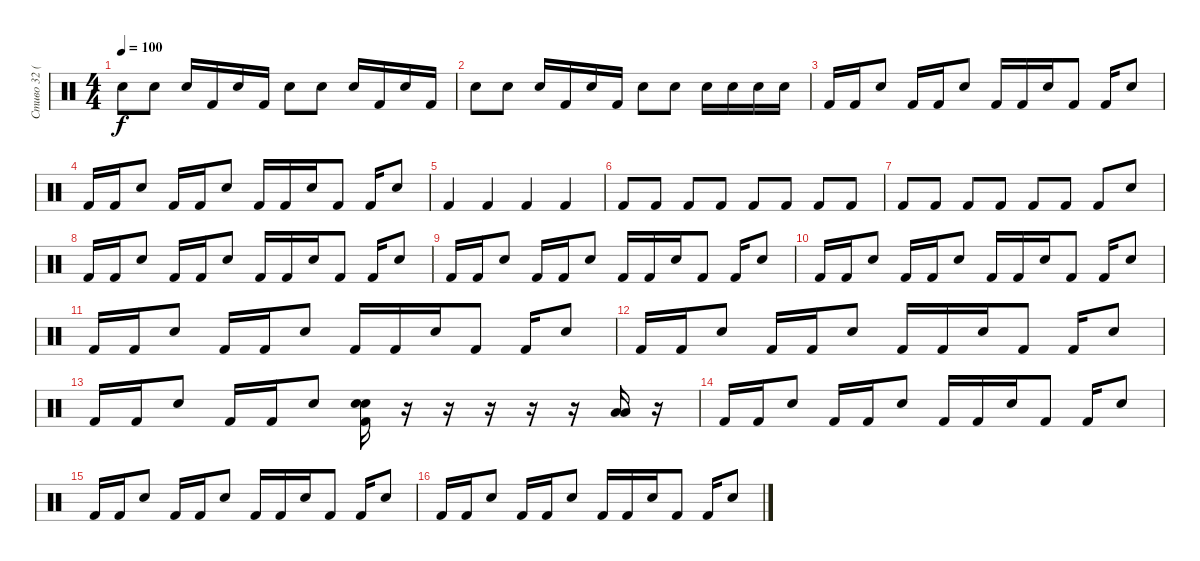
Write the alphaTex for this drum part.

\track ("Стиво 32 (Ударные)" "Стиво 32 (") {instrument percussion}
\staff {score}
\articulation defaults
\ts (4 4)
\tempo 100
\clef neutral
\ks c "Electric Snare (hit)".8{dy f} "Electric Snare (hit)".8 "Electric Snare (hit)".16 "Kick (hit) 2".16 "Electric Snare (hit)".16 "Kick (hit) 2".16 "Electric Snare (hit)".8 "Electric Snare (hit)".8 "Electric Snare (hit)".16 "Kick (hit) 2".16 "Electric Snare (hit)".16 "Kick (hit) 2".16
|
"Electric Snare (hit)".8 "Electric Snare (hit)".8 "Electric Snare (hit)".16 "Kick (hit) 2".16 "Electric Snare (hit)".16 "Kick (hit) 2".16 "Electric Snare (hit)".8 "Electric Snare (hit)".8 "Electric Snare (hit)".16 "Electric Snare (hit)".16 "Electric Snare (hit)".16 "Electric Snare (hit)".16 |
"Kick (hit) 2".16 "Kick (hit) 2".16 "Electric Snare (hit)".8 "Kick (hit) 2".16 "Kick (hit) 2".16 "Electric Snare (hit)".8 "Kick (hit) 2".16 "Kick (hit) 2".16 "Electric Snare (hit)".16 "Kick (hit) 2".8 "Kick (hit) 2".16 "Electric Snare (hit)".8 |
"Kick (hit) 2".16 "Kick (hit) 2".16 "Electric Snare (hit)".8 "Kick (hit) 2".16 "Kick (hit) 2".16 "Electric Snare (hit)".8 "Kick (hit) 2".16 "Kick (hit) 2".16 "Electric Snare (hit)".16 "Kick (hit) 2".8 "Kick (hit) 2".16 "Electric Snare (hit)".8 |
"Kick (hit) 2".4 "Kick (hit) 2".4 "Kick (hit) 2".4 "Kick (hit) 2".4 |
"Kick (hit) 2".8 "Kick (hit) 2".8 "Kick (hit) 2".8 "Kick (hit) 2".8 "Kick (hit) 2".8 "Kick (hit) 2".8 "Kick (hit) 2".8 "Kick (hit) 2".8 |
"Kick (hit) 2".8 "Kick (hit) 2".8 "Kick (hit) 2".8 "Kick (hit) 2".8 "Kick (hit) 2".8 "Kick (hit) 2".8 "Kick (hit) 2".8 "Electric Snare (hit)".8 |
"Kick (hit) 2".16 "Kick (hit) 2".16 "Electric Snare (hit)".8 "Kick (hit) 2".16 "Kick (hit) 2".16 "Electric Snare (hit)".8 "Kick (hit) 2".16 "Kick (hit) 2".16 "Electric Snare (hit)".16 "Kick (hit) 2".8 "Kick (hit) 2".16 "Electric Snare (hit)".8 |
"Kick (hit) 2".16 "Kick (hit) 2".16 "Electric Snare (hit)".8 "Kick (hit) 2".16 "Kick (hit) 2".16 "Electric Snare (hit)".8 "Kick (hit) 2".16 "Kick (hit) 2".16 "Electric Snare (hit)".16 "Kick (hit) 2".8 "Kick (hit) 2".16 "Electric Snare (hit)".8 |
"Kick (hit) 2".16 "Kick (hit) 2".16 "Electric Snare (hit)".8 "Kick (hit) 2".16 "Kick (hit) 2".16 "Electric Snare (hit)".8 "Kick (hit) 2".16 "Kick (hit) 2".16 "Electric Snare (hit)".16 "Kick (hit) 2".8 "Kick (hit) 2".16 "Electric Snare (hit)".8 |
"Kick (hit) 2".16 "Kick (hit) 2".16 "Electric Snare (hit)".8 "Kick (hit) 2".16 "Kick (hit) 2".16 "Electric Snare (hit)".8 "Kick (hit) 2".16 "Kick (hit) 2".16 "Electric Snare (hit)".16 "Kick (hit) 2".8 "Kick (hit) 2".16 "Electric Snare (hit)".8 |
"Kick (hit) 2".16 "Kick (hit) 2".16 "Electric Snare (hit)".8 "Kick (hit) 2".16 "Kick (hit) 2".16 "Electric Snare (hit)".8 "Kick (hit) 2".16 "Kick (hit) 2".16 "Electric Snare (hit)".16 "Kick (hit) 2".8 "Kick (hit) 2".16 "Electric Snare (hit)".8 |
"Kick (hit) 2".16 "Kick (hit) 2".16 "Electric Snare (hit)".8 "Kick (hit) 2".16 "Kick (hit) 2".16 "Electric Snare (hit)".8 ("Snare (hit) 2" "Electric Snare (hit)" "Kick (hit) 2").16 r.16 r.16 r.16 r.16 r.16 ("Low Floor Tom (hit)" "Low Tom (hit)").16 r.16 |
"Kick (hit) 2".16 "Kick (hit) 2".16 "Electric Snare (hit)".8 "Kick (hit) 2".16 "Kick (hit) 2".16 "Electric Snare (hit)".8 "Kick (hit) 2".16 "Kick (hit) 2".16 "Electric Snare (hit)".16 "Kick (hit) 2".8 "Kick (hit) 2".16 "Electric Snare (hit)".8 |
"Kick (hit) 2".16 "Kick (hit) 2".16 "Electric Snare (hit)".8 "Kick (hit) 2".16 "Kick (hit) 2".16 "Electric Snare (hit)".8 "Kick (hit) 2".16 "Kick (hit) 2".16 "Electric Snare (hit)".16 "Kick (hit) 2".8 "Kick (hit) 2".16 "Electric Snare (hit)".8 |
"Kick (hit) 2".16 "Kick (hit) 2".16 "Electric Snare (hit)".8 "Kick (hit) 2".16 "Kick (hit) 2".16 "Electric Snare (hit)".8 "Kick (hit) 2".16 "Kick (hit) 2".16 "Electric Snare (hit)".16 "Kick (hit) 2".8 "Kick (hit) 2".16 "Electric Snare (hit)".8
